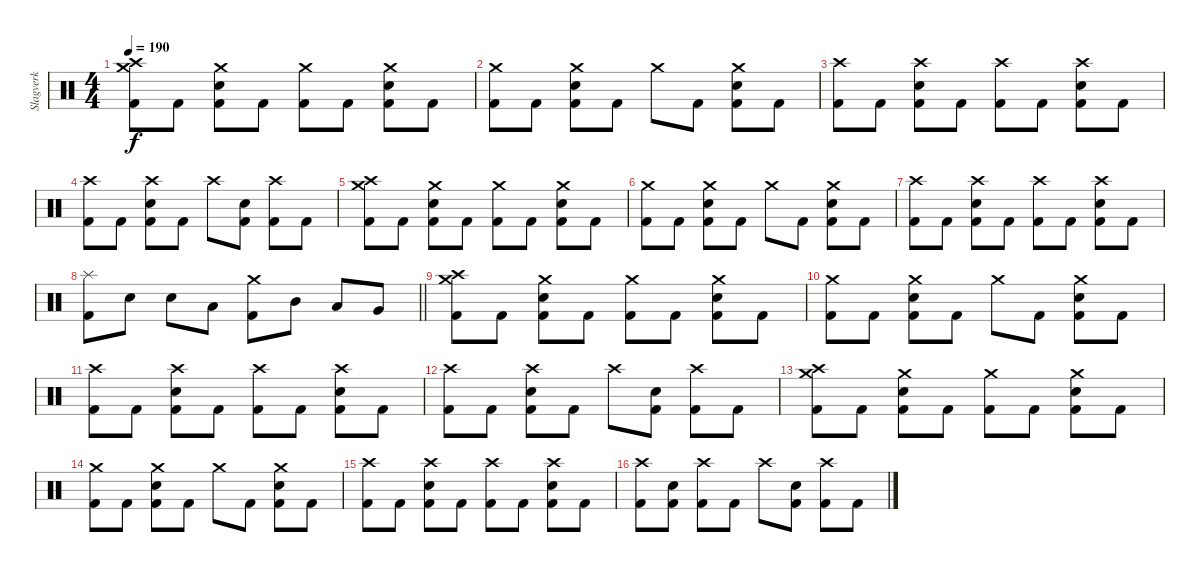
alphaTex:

\track ("Slagverk" "Slagverk") {instrument percussion}
\staff {score}
\articulation defaults
\ts (4 4)
\tempo 190
\clef neutral
\ks c
("Crash medium (hit)" "Crash high (hit)" "Kick (hit) 2").8{dy f} "Kick (hit) 2".8 ("Crash medium (hit)" "Electric Snare (hit)" "Kick (hit) 2").8 "Kick (hit) 2".8 ("Crash medium (hit)" "Kick (hit) 2").8 "Kick (hit) 2".8 ("Crash medium (hit)" "Electric Snare (hit)" "Kick (hit) 2").8 "Kick (hit) 2".8 |
("Crash medium (hit)" "Kick (hit) 2").8 "Kick (hit) 2".8 ("Crash medium (hit)" "Electric Snare (hit)" "Kick (hit) 2").8 "Kick (hit) 2".8 "Crash medium (hit)".8 "Kick (hit) 2".8 ("Crash medium (hit)" "Electric Snare (hit)" "Kick (hit) 2").8 "Kick (hit) 2".8 |
("Crash high (hit)" "Kick (hit) 2").8 "Kick (hit) 2".8 ("Crash high (hit)" "Electric Snare (hit)" "Kick (hit) 2").8 "Kick (hit) 2".8 ("Crash high (hit)" "Kick (hit) 2").8 "Kick (hit) 2".8 ("Crash high (hit)" "Electric Snare (hit)" "Kick (hit) 2").8 "Kick (hit) 2".8 |
("Crash high (hit)" "Kick (hit) 2").8 "Kick (hit) 2".8 ("Crash high (hit)" "Electric Snare (hit)" "Kick (hit) 2").8 "Kick (hit) 2".8 "Crash high (hit)".8 ("Electric Snare (hit)" "Kick (hit) 2").8 ("Crash high (hit)" "Kick (hit) 2").8 "Kick (hit) 2".8 |
("Crash medium (hit)" "Crash high (hit)" "Kick (hit) 2").8 "Kick (hit) 2".8 ("Crash medium (hit)" "Electric Snare (hit)" "Kick (hit) 2").8 "Kick (hit) 2".8 ("Crash medium (hit)" "Kick (hit) 2").8 "Kick (hit) 2".8 ("Crash medium (hit)" "Electric Snare (hit)" "Kick (hit) 2").8 "Kick (hit) 2".8 |
("Crash medium (hit)" "Kick (hit) 2").8 "Kick (hit) 2".8 ("Crash medium (hit)" "Electric Snare (hit)" "Kick (hit) 2").8 "Kick (hit) 2".8 "Crash medium (hit)".8 "Kick (hit) 2".8 ("Crash medium (hit)" "Electric Snare (hit)" "Kick (hit) 2").8 "Kick (hit) 2".8 |
("Crash high (hit)" "Kick (hit) 2").8 "Kick (hit) 2".8 ("Crash high (hit)" "Electric Snare (hit)" "Kick (hit) 2").8 "Kick (hit) 2".8 ("Crash high (hit)" "Kick (hit) 2").8 "Kick (hit) 2".8 ("Crash high (hit)" "Electric Snare (hit)" "Kick (hit) 2").8 "Kick (hit) 2".8 |
\barLineRight lightlight
("Splash (hit)" "Kick (hit) 2").8 "Electric Snare (hit)".8 "Electric Snare (hit)".8 "Low Tom (hit)".8 ("Crash medium (hit)" "Kick (hit) 2").8 "Mid Tom (hit)".8 "Low Tom (hit)".8 "Very Low Tom (hit)".8 |
("Crash medium (hit)" "Crash high (hit)" "Kick (hit) 2").8 "Kick (hit) 2".8 ("Crash medium (hit)" "Electric Snare (hit)" "Kick (hit) 2").8 "Kick (hit) 2".8 ("Crash medium (hit)" "Kick (hit) 2").8 "Kick (hit) 2".8 ("Crash medium (hit)" "Electric Snare (hit)" "Kick (hit) 2").8 "Kick (hit) 2".8 |
("Crash medium (hit)" "Kick (hit) 2").8 "Kick (hit) 2".8 ("Crash medium (hit)" "Electric Snare (hit)" "Kick (hit) 2").8 "Kick (hit) 2".8 "Crash medium (hit)".8 "Kick (hit) 2".8 ("Crash medium (hit)" "Electric Snare (hit)" "Kick (hit) 2").8 "Kick (hit) 2".8 |
("Crash high (hit)" "Kick (hit) 2").8 "Kick (hit) 2".8 ("Crash high (hit)" "Electric Snare (hit)" "Kick (hit) 2").8 "Kick (hit) 2".8 ("Crash high (hit)" "Kick (hit) 2").8 "Kick (hit) 2".8 ("Crash high (hit)" "Electric Snare (hit)" "Kick (hit) 2").8 "Kick (hit) 2".8 |
("Crash high (hit)" "Kick (hit) 2").8 "Kick (hit) 2".8 ("Crash high (hit)" "Electric Snare (hit)" "Kick (hit) 2").8 "Kick (hit) 2".8 "Crash high (hit)".8 ("Electric Snare (hit)" "Kick (hit) 2").8 ("Crash high (hit)" "Kick (hit) 2").8 "Kick (hit) 2".8 |
("Crash medium (hit)" "Crash high (hit)" "Kick (hit) 2").8 "Kick (hit) 2".8 ("Crash medium (hit)" "Electric Snare (hit)" "Kick (hit) 2").8 "Kick (hit) 2".8 ("Crash medium (hit)" "Kick (hit) 2").8 "Kick (hit) 2".8 ("Crash medium (hit)" "Electric Snare (hit)" "Kick (hit) 2").8 "Kick (hit) 2".8 |
("Crash medium (hit)" "Kick (hit) 2").8 "Kick (hit) 2".8 ("Crash medium (hit)" "Electric Snare (hit)" "Kick (hit) 2").8 "Kick (hit) 2".8 "Crash medium (hit)".8 "Kick (hit) 2".8 ("Crash medium (hit)" "Electric Snare (hit)" "Kick (hit) 2").8 "Kick (hit) 2".8 |
("Crash high (hit)" "Kick (hit) 2").8 "Kick (hit) 2".8 ("Crash high (hit)" "Electric Snare (hit)" "Kick (hit) 2").8 "Kick (hit) 2".8 ("Crash high (hit)" "Kick (hit) 2").8 "Kick (hit) 2".8 ("Crash high (hit)" "Electric Snare (hit)" "Kick (hit) 2").8 "Kick (hit) 2".8 |
("Crash high (hit)" "Kick (hit) 2").8 ("Electric Snare (hit)" "Kick (hit) 2").8 ("Crash high (hit)" "Kick (hit) 2").8 "Kick (hit) 2".8 "Crash high (hit)".8 ("Electric Snare (hit)" "Kick (hit) 2").8 ("Crash high (hit)" "Kick (hit) 2").8 "Kick (hit) 2".8
